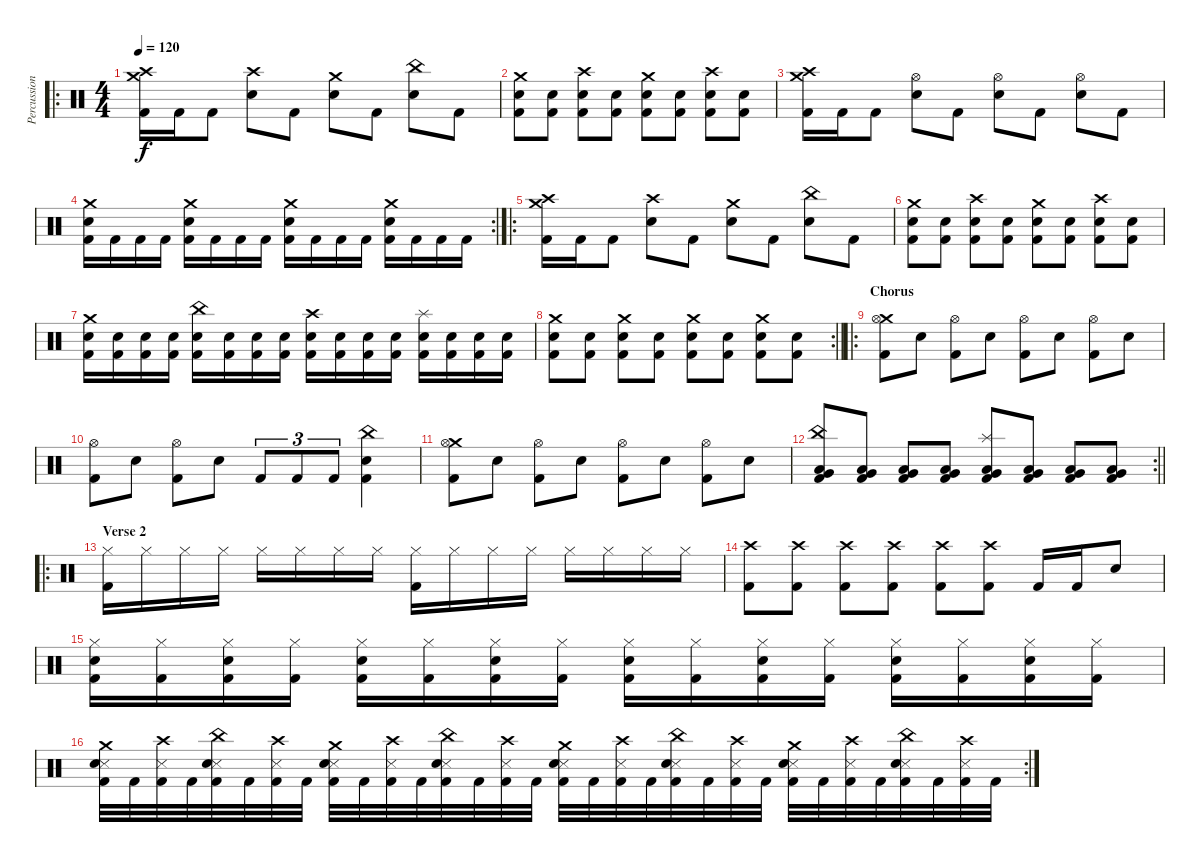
\track ("Percussions" "Percussion") {instrument percussion}
\staff {score}
\articulation defaults
\ro
\ts (4 4)
\tempo 120
\clef neutral
\ks c
("Crash medium (hit)" "Crash high (hit)" "Kick (hit) 2").16{dy f} "Kick (hit) 2".16 "Kick (hit) 2".8 ("Crash high (hit)" "Snare (hit) 2").8 "Kick (hit) 2".8 ("Crash medium (hit)" "Snare (hit) 2").8 "Kick (hit) 2".8 ("China (hit)" "Snare (hit) 2").8 "Kick (hit) 2".8 |
("Crash medium (hit)" "Snare (hit) 2" "Kick (hit) 2").8 ("Snare (hit) 2" "Kick (hit) 2").8 ("Crash high (hit)" "Snare (hit) 2" "Kick (hit) 2").8 ("Snare (hit) 2" "Kick (hit) 2").8 ("Crash medium (hit)" "Snare (hit) 2" "Kick (hit) 2").8 ("Snare (hit) 2" "Kick (hit) 2").8 ("Crash high (hit)" "Snare (hit) 2" "Kick (hit) 2").8 ("Snare (hit) 2" "Kick (hit) 2").8 |
("Crash medium (hit)" "Crash high (hit)" "Kick (hit) 2").16 "Kick (hit) 2".16 "Kick (hit) 2".8 ("Hi-Hat (open)" "Snare (hit) 2").8 "Kick (hit) 2".8 ("Hi-Hat (open)" "Snare (hit) 2").8 "Kick (hit) 2".8 ("Hi-Hat (open)" "Snare (hit) 2").8 "Kick (hit) 2".8 |
\rc 2
("Crash medium (hit)" "Snare (hit) 2" "Kick (hit) 2").16 "Kick (hit) 2".16 "Kick (hit) 2".16 "Kick (hit) 2".16 ("Crash medium (hit)" "Snare (hit) 2" "Kick (hit) 2").16 "Kick (hit) 2".16 "Kick (hit) 2".16 "Kick (hit) 2".16 ("Crash medium (hit)" "Snare (hit) 2" "Kick (hit) 2").16 "Kick (hit) 2".16 "Kick (hit) 2".16 "Kick (hit) 2".16 ("Crash medium (hit)" "Snare (hit) 2" "Kick (hit) 2").16 "Kick (hit) 2".16 "Kick (hit) 2".16 "Kick (hit) 2".16 |
\ro
("Crash medium (hit)" "Crash high (hit)" "Kick (hit) 2").16 "Kick (hit) 2".16 "Kick (hit) 2".8 ("Crash high (hit)" "Snare (hit) 2").8 "Kick (hit) 2".8 ("Crash medium (hit)" "Snare (hit) 2").8 "Kick (hit) 2".8 ("China (hit)" "Snare (hit) 2").8 "Kick (hit) 2".8 |
("Crash medium (hit)" "Snare (hit) 2" "Kick (hit) 2").8 ("Snare (hit) 2" "Kick (hit) 2").8 ("Crash high (hit)" "Snare (hit) 2" "Kick (hit) 2").8 ("Snare (hit) 2" "Kick (hit) 2").8 ("Crash medium (hit)" "Snare (hit) 2" "Kick (hit) 2").8 ("Snare (hit) 2" "Kick (hit) 2").8 ("Crash high (hit)" "Snare (hit) 2" "Kick (hit) 2").8 ("Snare (hit) 2" "Kick (hit) 2").8 |
("Crash medium (hit)" "Snare (hit) 2" "Kick (hit) 2").16 ("Snare (hit) 2" "Kick (hit) 2").16 ("Snare (hit) 2" "Kick (hit) 2").16 ("Snare (hit) 2" "Kick (hit) 2").16 ("China (hit)" "Snare (hit) 2" "Kick (hit) 2").16 ("Snare (hit) 2" "Kick (hit) 2").16 ("Snare (hit) 2" "Kick (hit) 2").16 ("Snare (hit) 2" "Kick (hit) 2").16 ("Crash high (hit)" "Snare (hit) 2" "Kick (hit) 2").16 ("Snare (hit) 2" "Kick (hit) 2").16 ("Snare (hit) 2" "Kick (hit) 2").16 ("Snare (hit) 2" "Kick (hit) 2").16 ("Splash (hit)" "Snare (hit) 2" "Kick (hit) 2").16 ("Snare (hit) 2" "Kick (hit) 2").16 ("Snare (hit) 2" "Kick (hit) 2").16 ("Snare (hit) 2" "Kick (hit) 2").16 |
\rc 2
\barLineRight lightlight
("Crash medium (hit)" "Snare (hit) 2" "Kick (hit) 2").8 ("Snare (hit) 2" "Kick (hit) 2").8 ("Crash medium (hit)" "Snare (hit) 2" "Kick (hit) 2").8 ("Snare (hit) 2" "Kick (hit) 2").8 ("Crash medium (hit)" "Snare (hit) 2" "Kick (hit) 2").8 ("Snare (hit) 2" "Kick (hit) 2").8 ("Crash medium (hit)" "Snare (hit) 2" "Kick (hit) 2").8 ("Snare (hit) 2" "Kick (hit) 2").8 |
\ro
\section ("" "Chorus")
("Crash medium (hit)" "Hi-Hat (open)" "Kick (hit) 2").8 "Snare (hit) 2".8 ("Hi-Hat (open)" "Kick (hit) 2").8 "Snare (hit) 2".8 ("Hi-Hat (open)" "Kick (hit) 2").8 "Snare (hit) 2".8 ("Hi-Hat (open)" "Kick (hit) 2").8 "Snare (hit) 2".8 |
("Hi-Hat (open)" "Kick (hit) 2").8 "Snare (hit) 2".8 ("Hi-Hat (open)" "Kick (hit) 2").8 "Snare (hit) 2".8 "Kick (hit) 2".8{tu (3 2)} "Kick (hit) 2".8{tu (3 2)} "Kick (hit) 2".8{tu (3 2)} ("China (hit)" "Snare (hit) 2" "Kick (hit) 2").4 |
("Crash medium (hit)" "Hi-Hat (open)" "Kick (hit) 2").8 "Snare (hit) 2".8 ("Hi-Hat (open)" "Kick (hit) 2").8 "Snare (hit) 2".8 ("Hi-Hat (open)" "Kick (hit) 2").8 "Snare (hit) 2".8 ("Hi-Hat (open)" "Kick (hit) 2").8 "Snare (hit) 2".8 |
\rc 2
\barLineRight lightlight
("China (hit)" "Low Tom (hit)" "Kick (hit) 2" "Very Low Tom (hit)").8 ("Low Tom (hit)" "Kick (hit) 2" "Very Low Tom (hit)").8 ("Low Tom (hit)" "Kick (hit) 2" "Very Low Tom (hit)").8 ("Low Tom (hit)" "Kick (hit) 2" "Very Low Tom (hit)").8 ("Splash (hit)" "Low Tom (hit)" "Kick (hit) 2" "Very Low Tom (hit)").8 ("Low Tom (hit)" "Kick (hit) 2" "Very Low Tom (hit)").8 ("Low Tom (hit)" "Kick (hit) 2" "Very Low Tom (hit)").8 ("Low Tom (hit)" "Kick (hit) 2" "Very Low Tom (hit)").8 |
\ro
\section ("" "Verse 2 ")
("Kick (hit) 2" "Hi-Hat (closed)").16 "Hi-Hat (closed)".16 "Hi-Hat (closed)".16 "Hi-Hat (closed)".16 "Hi-Hat (closed)".16 "Hi-Hat (closed)".16 "Hi-Hat (closed)".16 "Hi-Hat (closed)".16 ("Kick (hit) 2" "Hi-Hat (closed)").16 "Hi-Hat (closed)".16 "Hi-Hat (closed)".16 "Hi-Hat (closed)".16 "Hi-Hat (closed)".16 "Hi-Hat (closed)".16 "Hi-Hat (closed)".16 "Hi-Hat (closed)".16 |
("Kick (hit) 2" "Crash high (hit)").8 ("Kick (hit) 2" "Crash high (hit)").8 ("Kick (hit) 2" "Crash high (hit)").8 ("Kick (hit) 2" "Crash high (hit)").8 ("Kick (hit) 2" "Crash high (hit)").8 ("Kick (hit) 2" "Crash high (hit)").8 "Kick (hit) 2".16 "Kick (hit) 2".16 "Electric Snare (hit)".8 |
("Kick (hit) 2" "Electric Snare (hit)" "Hi-Hat (closed)").16 ("Kick (hit) 2" "Hi-Hat (closed)").16 ("Kick (hit) 2" "Electric Snare (hit)" "Hi-Hat (closed)").16 ("Kick (hit) 2" "Hi-Hat (closed)").16 ("Kick (hit) 2" "Electric Snare (hit)" "Hi-Hat (closed)").16 ("Kick (hit) 2" "Hi-Hat (closed)").16 ("Kick (hit) 2" "Electric Snare (hit)" "Hi-Hat (closed)").16 ("Kick (hit) 2" "Hi-Hat (closed)").16 ("Kick (hit) 2" "Electric Snare (hit)" "Hi-Hat (closed)").16 ("Kick (hit) 2" "Hi-Hat (closed)").16 ("Kick (hit) 2" "Electric Snare (hit)" "Hi-Hat (closed)").16 ("Kick (hit) 2" "Hi-Hat (closed)").16 ("Kick (hit) 2" "Electric Snare (hit)" "Hi-Hat (closed)").16 ("Kick (hit) 2" "Hi-Hat (closed)").16 ("Kick (hit) 2" "Electric Snare (hit)" "Hi-Hat (closed)").16 ("Kick (hit) 2" "Hi-Hat (closed)").16 |
\rc 2
("Kick (hit) 2" "Crash medium (hit)" "Snare (side stick) 3" "Electric Snare (hit)").32 "Kick (hit) 2".32 ("Kick (hit) 2" "Snare (side stick) 3" "Crash high (hit)").32 "Kick (hit) 2".32 ("Kick (hit) 2" "China (hit)" "Snare (side stick) 3" "Electric Snare (hit)").32 "Kick (hit) 2".32 ("Kick (hit) 2" "Snare (side stick) 3" "Crash high (hit)").32 "Kick (hit) 2".32 ("Kick (hit) 2" "Crash medium (hit)" "Snare (side stick) 3" "Electric Snare (hit)").32 "Kick (hit) 2".32 ("Kick (hit) 2" "Snare (side stick) 3" "Crash high (hit)").32 "Kick (hit) 2".32 ("Kick (hit) 2" "China (hit)" "Snare (side stick) 3" "Electric Snare (hit)").32 "Kick (hit) 2".32 ("Kick (hit) 2" "Snare (side stick) 3" "Crash high (hit)").32 "Kick (hit) 2".32 ("Kick (hit) 2" "Crash medium (hit)" "Snare (side stick) 3" "Electric Snare (hit)").32 "Kick (hit) 2".32 ("Kick (hit) 2" "Snare (side stick) 3" "Crash high (hit)").32 "Kick (hit) 2".32 ("Kick (hit) 2" "China (hit)" "Snare (side stick) 3" "Electric Snare (hit)").32 "Kick (hit) 2".32 ("Kick (hit) 2" "Snare (side stick) 3" "Crash high (hit)").32 "Kick (hit) 2".32 ("Kick (hit) 2" "Crash medium (hit)" "Snare (side stick) 3" "Electric Snare (hit)").32 "Kick (hit) 2".32 ("Kick (hit) 2" "Snare (side stick) 3" "Crash high (hit)").32 "Kick (hit) 2".32 ("Kick (hit) 2" "China (hit)" "Snare (side stick) 3" "Electric Snare (hit)").32 "Kick (hit) 2".32 ("Kick (hit) 2" "Snare (side stick) 3" "Crash high (hit)").32 "Kick (hit) 2".32
